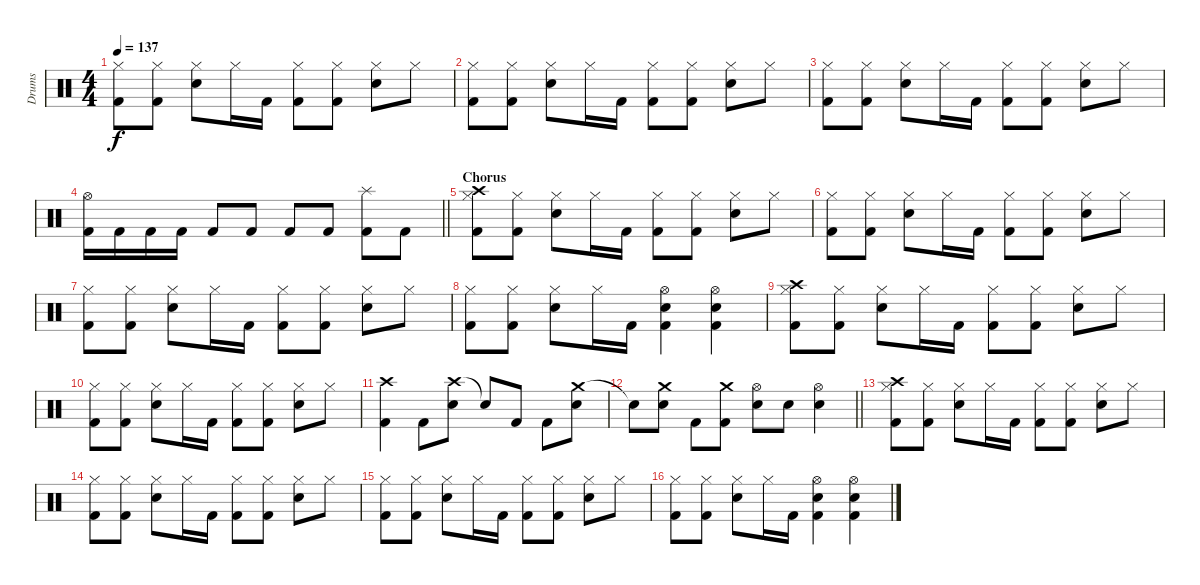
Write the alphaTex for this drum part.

\track ("Drums" "Drums") {instrument percussion}
\staff {score}
\articulation defaults
\ts (4 4)
\tempo 137
\clef neutral
\ks c
("Hi-Hat (closed)" "Kick (hit) 2").8{dy f} ("Hi-Hat (closed)" "Kick (hit) 2").8 ("Hi-Hat (closed)" "Snare (hit) 2").8 "Hi-Hat (closed)".16 "Kick (hit) 2".16 ("Hi-Hat (closed)" "Kick (hit) 2").8 ("Hi-Hat (closed)" "Kick (hit) 2").8 ("Hi-Hat (closed)" "Snare (hit) 2").8 "Hi-Hat (closed)".8 |
("Hi-Hat (closed)" "Kick (hit) 2").8 ("Hi-Hat (closed)" "Kick (hit) 2").8 ("Hi-Hat (closed)" "Snare (hit) 2").8 "Hi-Hat (closed)".16 "Kick (hit) 2".16 ("Hi-Hat (closed)" "Kick (hit) 2").8 ("Hi-Hat (closed)" "Kick (hit) 2").8 ("Hi-Hat (closed)" "Snare (hit) 2").8 "Hi-Hat (closed)".8 |
("Hi-Hat (closed)" "Kick (hit) 2").8 ("Hi-Hat (closed)" "Kick (hit) 2").8 ("Hi-Hat (closed)" "Snare (hit) 2").8 "Hi-Hat (closed)".16 "Kick (hit) 2".16 ("Hi-Hat (closed)" "Kick (hit) 2").8 ("Hi-Hat (closed)" "Kick (hit) 2").8 ("Hi-Hat (closed)" "Snare (hit) 2").8 "Hi-Hat (closed)".8 |
\barLineRight lightlight
("Hi-Hat (open)" "Kick (hit) 2").16 "Kick (hit) 2".16 "Kick (hit) 2".16 "Kick (hit) 2".16 "Kick (hit) 2".8 "Kick (hit) 2".8 "Kick (hit) 2".8 "Kick (hit) 2".8 ("Splash (hit)" "Kick (hit) 2").8 "Kick (hit) 2".8 |
\section ("" "Chorus")
("Hi-Hat (closed)" "Crash high (hit)" "Kick (hit) 2").8 ("Hi-Hat (closed)" "Kick (hit) 2").8 ("Hi-Hat (closed)" "Snare (hit) 2").8 "Hi-Hat (closed)".16 "Kick (hit) 2".16 ("Hi-Hat (closed)" "Kick (hit) 2").8 ("Hi-Hat (closed)" "Kick (hit) 2").8 ("Hi-Hat (closed)" "Snare (hit) 2").8 "Hi-Hat (closed)".8 |
("Hi-Hat (closed)" "Kick (hit) 2").8 ("Hi-Hat (closed)" "Kick (hit) 2").8 ("Hi-Hat (closed)" "Snare (hit) 2").8 "Hi-Hat (closed)".16 "Kick (hit) 2".16 ("Hi-Hat (closed)" "Kick (hit) 2").8 ("Hi-Hat (closed)" "Kick (hit) 2").8 ("Hi-Hat (closed)" "Snare (hit) 2").8 "Hi-Hat (closed)".8 |
("Hi-Hat (closed)" "Kick (hit) 2").8 ("Hi-Hat (closed)" "Kick (hit) 2").8 ("Hi-Hat (closed)" "Snare (hit) 2").8 "Hi-Hat (closed)".16 "Kick (hit) 2".16 ("Hi-Hat (closed)" "Kick (hit) 2").8 ("Hi-Hat (closed)" "Kick (hit) 2").8 ("Hi-Hat (closed)" "Snare (hit) 2").8 "Hi-Hat (closed)".8 |
("Hi-Hat (closed)" "Kick (hit) 2").8 ("Hi-Hat (closed)" "Kick (hit) 2").8 ("Hi-Hat (closed)" "Snare (hit) 2").8 "Hi-Hat (closed)".16 "Kick (hit) 2".16 ("Hi-Hat (open)" "Snare (hit) 2" "Kick (hit) 2").4 ("Hi-Hat (open)" "Snare (hit) 2" "Kick (hit) 2").4 |
("Hi-Hat (closed)" "Crash high (hit)" "Kick (hit) 2").8 ("Hi-Hat (closed)" "Kick (hit) 2").8 ("Hi-Hat (closed)" "Snare (hit) 2").8 "Hi-Hat (closed)".16 "Kick (hit) 2".16 ("Hi-Hat (closed)" "Kick (hit) 2").8 ("Hi-Hat (closed)" "Kick (hit) 2").8 ("Hi-Hat (closed)" "Snare (hit) 2").8 "Hi-Hat (closed)".8 |
("Hi-Hat (closed)" "Kick (hit) 2").8 ("Hi-Hat (closed)" "Kick (hit) 2").8 ("Hi-Hat (closed)" "Snare (hit) 2").8 "Hi-Hat (closed)".16 "Kick (hit) 2".16 ("Hi-Hat (closed)" "Kick (hit) 2").8 ("Hi-Hat (closed)" "Kick (hit) 2").8 ("Hi-Hat (closed)" "Snare (hit) 2").8 "Hi-Hat (closed)".8 |
("Crash high (hit)" "Kick (hit) 2").4 "Kick (hit) 2".8 ("Crash high (hit)" "Snare (hit) 2").8 "Snare (hit)"{t}.8 "Kick (hit) 2".8 "Kick (hit) 2".8 ("Crash medium (hit)" "Snare (hit) 2").8 |
\barLineRight lightlight "Snare (hit)"{t}.8
("Crash medium (hit)" "Snare (hit) 2").8 "Kick (hit) 2".8 ("Crash medium (hit)" "Kick (hit) 2").8 ("Hi-Hat (open)" "Snare (hit) 2").8 "Snare (hit) 2".8 ("Hi-Hat (open)" "Snare (hit) 2").4 |
("Hi-Hat (closed)" "Crash high (hit)" "Kick (hit) 2").8 ("Hi-Hat (closed)" "Kick (hit) 2").8 ("Hi-Hat (closed)" "Snare (hit) 2").8 "Hi-Hat (closed)".16 "Kick (hit) 2".16 ("Hi-Hat (closed)" "Kick (hit) 2").8 ("Hi-Hat (closed)" "Kick (hit) 2").8 ("Hi-Hat (closed)" "Snare (hit) 2").8 "Hi-Hat (closed)".8 |
("Hi-Hat (closed)" "Kick (hit) 2").8 ("Hi-Hat (closed)" "Kick (hit) 2").8 ("Hi-Hat (closed)" "Snare (hit) 2").8 "Hi-Hat (closed)".16 "Kick (hit) 2".16 ("Hi-Hat (closed)" "Kick (hit) 2").8 ("Hi-Hat (closed)" "Kick (hit) 2").8 ("Hi-Hat (closed)" "Snare (hit) 2").8 "Hi-Hat (closed)".8 |
("Hi-Hat (closed)" "Kick (hit) 2").8 ("Hi-Hat (closed)" "Kick (hit) 2").8 ("Hi-Hat (closed)" "Snare (hit) 2").8 "Hi-Hat (closed)".16 "Kick (hit) 2".16 ("Hi-Hat (closed)" "Kick (hit) 2").8 ("Hi-Hat (closed)" "Kick (hit) 2").8 ("Hi-Hat (closed)" "Snare (hit) 2").8 "Hi-Hat (closed)".8 |
("Hi-Hat (closed)" "Kick (hit) 2").8 ("Hi-Hat (closed)" "Kick (hit) 2").8 ("Hi-Hat (closed)" "Snare (hit) 2").8 "Hi-Hat (closed)".16 "Kick (hit) 2".16 ("Hi-Hat (open)" "Snare (hit) 2" "Kick (hit) 2").4 ("Hi-Hat (open)" "Snare (hit) 2" "Kick (hit) 2").4
